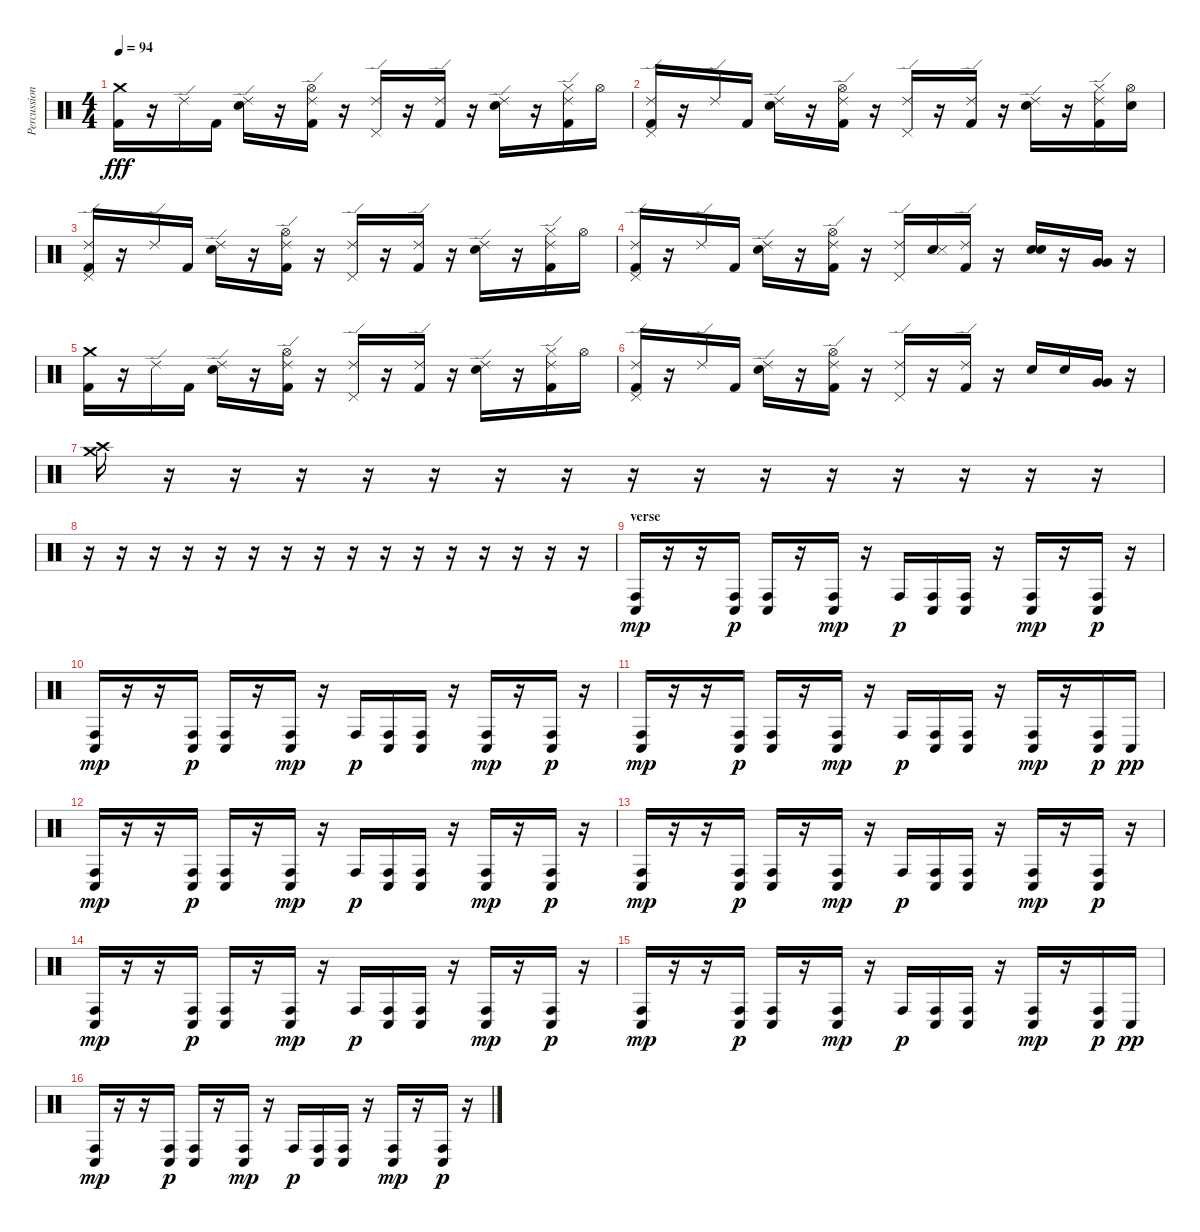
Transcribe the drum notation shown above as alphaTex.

\track ("Percussion" "Percussion") {instrument percussion}
\staff {score}
\articulation defaults
\ts (4 4)
\tempo 94
\clef neutral
\ks c
("Crash medium (hit)" "Kick (hit) 2").16{dy fff} r.16 "Ride (edge) 2".16 "Kick (hit) 2".16 ("Ride (edge) 2" "Electric Snare (hit)").16 r.16 ("Ride (edge) 2" "Hi-Hat (open)" "Kick (hit) 2").16 r.16 ("Ride (edge) 2" "Pedal Hi-Hat (hit)").16 r.16 ("Ride (edge) 2" "Kick (hit) 2").16 r.16 ("Ride (edge) 2" "Electric Snare (hit)").16 r.16 ("Ride (edge) 2" "Hi-Hat (closed)" "Kick (hit) 2").16 "Hi-Hat (open)".16 |
("Ride (edge) 2" "Pedal Hi-Hat (hit)" "Kick (hit) 2").16 r.16 "Ride (edge) 2".16 "Kick (hit) 2".16 ("Ride (edge) 2" "Electric Snare (hit)").16 r.16 ("Ride (edge) 2" "Hi-Hat (open)" "Kick (hit) 2").16 r.16 ("Ride (edge) 2" "Pedal Hi-Hat (hit)").16 r.16 ("Ride (edge) 2" "Kick (hit) 2").16 r.16 ("Ride (edge) 2" "Electric Snare (hit)").16 r.16 ("Ride (edge) 2" "Hi-Hat (closed)" "Kick (hit) 2").16 ("Hi-Hat (open)" "Electric Snare (hit)").16 |
("Ride (edge) 2" "Pedal Hi-Hat (hit)" "Kick (hit) 2").16 r.16 "Ride (edge) 2".16 "Kick (hit) 2".16 ("Ride (edge) 2" "Electric Snare (hit)").16 r.16 ("Ride (edge) 2" "Hi-Hat (open)" "Kick (hit) 2").16 r.16 ("Ride (edge) 2" "Pedal Hi-Hat (hit)").16 r.16 ("Ride (edge) 2" "Kick (hit) 2").16 r.16 ("Ride (edge) 2" "Electric Snare (hit)").16 r.16 ("Ride (edge) 2" "Hi-Hat (closed)" "Kick (hit) 2").16 "Hi-Hat (open)".16 |
("Ride (edge) 2" "Pedal Hi-Hat (hit)" "Kick (hit) 2").16 r.16 "Ride (edge) 2".16 "Kick (hit) 2".16 ("Ride (edge) 2" "Electric Snare (hit)").16 r.16 ("Ride (edge) 2" "Hi-Hat (open)" "Kick (hit) 2").16 r.16 ("Ride (edge) 2" "Pedal Hi-Hat (hit)").16 ("Electric Snare (hit)" "Snare (side stick) 3").16 ("Ride (edge) 2" "Kick (hit) 2").16 r.16 ("Electric Snare (hit)" "Electric Snare (hit)").16 r.16 ("Very Low Tom (hit)" "Very Low Tom (hit)").16 r.16 |
("Crash medium (hit)" "Kick (hit) 2").16 r.16 "Ride (edge) 2".16 "Kick (hit) 2".16 ("Ride (edge) 2" "Electric Snare (hit)").16 r.16 ("Ride (edge) 2" "Hi-Hat (open)" "Kick (hit) 2").16 r.16 ("Ride (edge) 2" "Pedal Hi-Hat (hit)").16 r.16 ("Ride (edge) 2" "Kick (hit) 2").16 r.16 ("Ride (edge) 2" "Electric Snare (hit)").16 r.16 ("Ride (edge) 2" "Hi-Hat (closed)" "Kick (hit) 2").16 "Hi-Hat (open)".16 |
("Ride (edge) 2" "Pedal Hi-Hat (hit)" "Kick (hit) 2").16 r.16 "Ride (edge) 2".16 "Kick (hit) 2".16 ("Ride (edge) 2" "Electric Snare (hit)").16 r.16 ("Ride (edge) 2" "Hi-Hat (open)" "Kick (hit) 2").16 r.16 ("Ride (edge) 2" "Pedal Hi-Hat (hit)").16 r.16 ("Ride (edge) 2" "Kick (hit) 2").16 r.16 "Electric Snare (hit)".16 "Electric Snare (hit)".16 ("Very Low Tom (hit)" "Very Low Tom (hit)").16 r.16 |
("Crash high (hit)" "Crash medium (hit)").16 r.16 r.16 r.16 r.16 r.16 r.16 r.16 r.16 r.16 r.16 r.16 r.16 r.16 r.16 r.16 |
r.16 r.16 r.16 r.16 r.16 r.16 r.16 r.16 r.16 r.16 r.16 r.16 r.16 r.16 r.16 r.16 |
\section ("" "verse")
("Conga low (hit)" "Conga high (hit)").16{dy mp} r.16 r.16 ("Conga low (hit)" "Conga high (hit)").16{dy p} ("Conga low (hit)" "Conga high (hit)").16 r.16 ("Conga low (hit)" "Conga high (hit)").16{dy mp} r.16 "Conga high (hit)".16{dy p} ("Conga low (hit)" "Conga high (hit)").16 ("Conga low (hit)" "Conga high (hit)").16 r.16 ("Conga low (hit)" "Conga high (hit)").16{dy mp} r.16 ("Conga low (hit)" "Conga high (hit)").16{dy p} r.16 |
("Conga low (hit)" "Conga high (hit)").16{dy mp} r.16 r.16 ("Conga low (hit)" "Conga high (hit)").16{dy p} ("Conga low (hit)" "Conga high (hit)").16 r.16 ("Conga low (hit)" "Conga high (hit)").16{dy mp} r.16 "Conga high (hit)".16{dy p} ("Conga low (hit)" "Conga high (hit)").16 ("Conga low (hit)" "Conga high (hit)").16 r.16 ("Conga low (hit)" "Conga high (hit)").16{dy mp} r.16 ("Conga low (hit)" "Conga high (hit)").16{dy p} r.16 |
("Conga low (hit)" "Conga high (hit)").16{dy mp} r.16 r.16 ("Conga low (hit)" "Conga high (hit)").16{dy p} ("Conga low (hit)" "Conga high (hit)").16 r.16 ("Conga low (hit)" "Conga high (hit)").16{dy mp} r.16 "Conga high (hit)".16{dy p} ("Conga low (hit)" "Conga high (hit)").16 ("Conga low (hit)" "Conga high (hit)").16 r.16 ("Conga low (hit)" "Conga high (hit)").16{dy mp} r.16 ("Conga low (hit)" "Conga high (hit)").16{dy p} "Conga low (hit)".16{dy pp} |
("Conga low (hit)" "Conga high (hit)").16{dy mp} r.16 r.16 ("Conga low (hit)" "Conga high (hit)").16{dy p} ("Conga low (hit)" "Conga high (hit)").16 r.16 ("Conga low (hit)" "Conga high (hit)").16{dy mp} r.16 "Conga high (hit)".16{dy p} ("Conga low (hit)" "Conga high (hit)").16 ("Conga low (hit)" "Conga high (hit)").16 r.16 ("Conga low (hit)" "Conga high (hit)").16{dy mp} r.16 ("Conga low (hit)" "Conga high (hit)").16{dy p} r.16 |
("Conga low (hit)" "Conga high (hit)").16{dy mp} r.16 r.16 ("Conga low (hit)" "Conga high (hit)").16{dy p} ("Conga low (hit)" "Conga high (hit)").16 r.16 ("Conga low (hit)" "Conga high (hit)").16{dy mp} r.16 "Conga high (hit)".16{dy p} ("Conga low (hit)" "Conga high (hit)").16 ("Conga low (hit)" "Conga high (hit)").16 r.16 ("Conga low (hit)" "Conga high (hit)").16{dy mp} r.16 ("Conga low (hit)" "Conga high (hit)").16{dy p} r.16 |
("Conga low (hit)" "Conga high (hit)").16{dy mp} r.16 r.16 ("Conga low (hit)" "Conga high (hit)").16{dy p} ("Conga low (hit)" "Conga high (hit)").16 r.16 ("Conga low (hit)" "Conga high (hit)").16{dy mp} r.16 "Conga high (hit)".16{dy p} ("Conga low (hit)" "Conga high (hit)").16 ("Conga low (hit)" "Conga high (hit)").16 r.16 ("Conga low (hit)" "Conga high (hit)").16{dy mp} r.16 ("Conga low (hit)" "Conga high (hit)").16{dy p} r.16 |
("Conga low (hit)" "Conga high (hit)").16{dy mp} r.16 r.16 ("Conga low (hit)" "Conga high (hit)").16{dy p} ("Conga low (hit)" "Conga high (hit)").16 r.16 ("Conga low (hit)" "Conga high (hit)").16{dy mp} r.16 "Conga high (hit)".16{dy p} ("Conga low (hit)" "Conga high (hit)").16 ("Conga low (hit)" "Conga high (hit)").16 r.16 ("Conga low (hit)" "Conga high (hit)").16{dy mp} r.16 ("Conga low (hit)" "Conga high (hit)").16{dy p} "Conga low (hit)".16{dy pp} |
("Conga low (hit)" "Conga high (hit)").16{dy mp} r.16 r.16 ("Conga low (hit)" "Conga high (hit)").16{dy p} ("Conga low (hit)" "Conga high (hit)").16 r.16 ("Conga low (hit)" "Conga high (hit)").16{dy mp} r.16 "Conga high (hit)".16{dy p} ("Conga low (hit)" "Conga high (hit)").16 ("Conga low (hit)" "Conga high (hit)").16 r.16 ("Conga low (hit)" "Conga high (hit)").16{dy mp} r.16 ("Conga low (hit)" "Conga high (hit)").16{dy p} r.16
